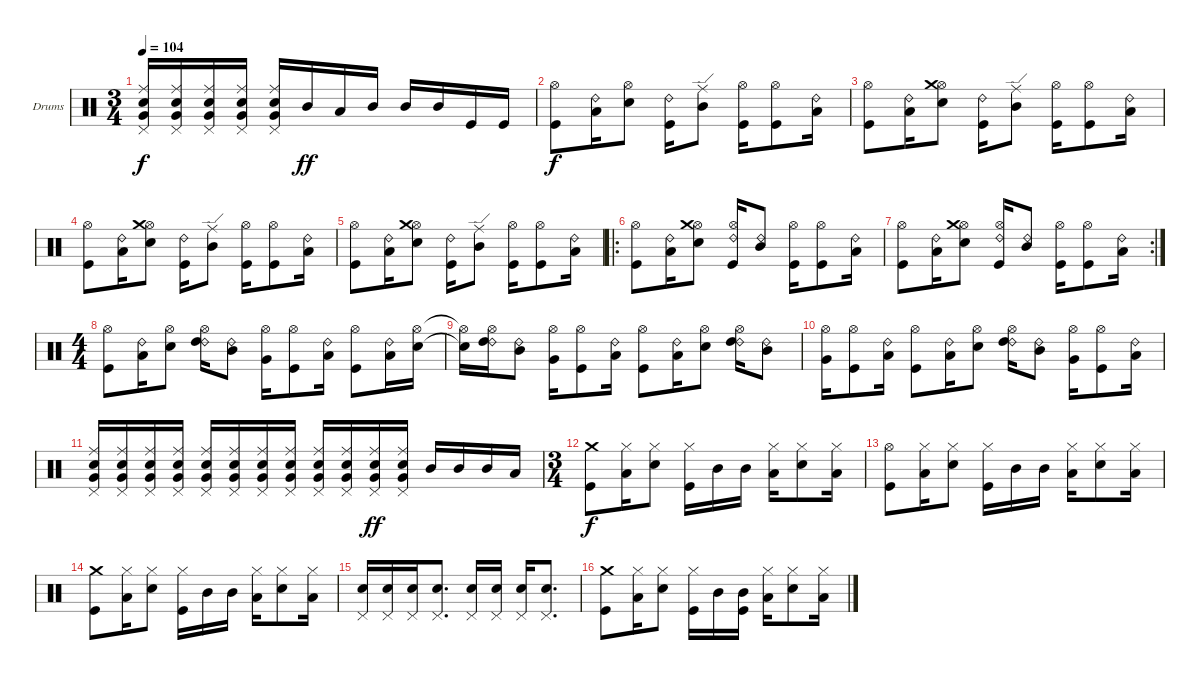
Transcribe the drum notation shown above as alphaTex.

\bracketExtendMode groupsimilarinstruments
\firstSystemTrackNameOrientation horizontal
\otherSystemsTrackNameOrientation horizontal
\track ("Drumkit" "Drums") {instrument percussion}
\staff {score}
\articulation defaults
\ts (3 4)
\tempo 104
\clef neutral
\ks c
("Pedal Hi-Hat (hit)" "Snare (hit) 2" "Ride (middle)" "Very Low Tom (hit)").16{dy f} ("Pedal Hi-Hat (hit)" "Snare (hit) 2" "Ride (middle)" "Very Low Tom (hit)").16 ("Pedal Hi-Hat (hit)" "Snare (hit) 2" "Ride (middle)" "Very Low Tom (hit)").16 ("Pedal Hi-Hat (hit)" "Snare (hit) 2" "Ride (middle)" "Very Low Tom (hit)").16 ("Pedal Hi-Hat (hit)" "Snare (hit) 2" "Ride (middle)" "Very Low Tom (hit)").16 "Mid Tom (hit)".16{dy ff} "Low Tom (hit)".16 "Mid Tom (hit)".16 "Mid Tom (hit)".16 "Mid Tom (hit)".16 "Kick (hit)".16 "Kick (hit)".16 |
("Kick (hit)" "Hi-Hat (open)").8{dy f} ("Low Tom (hit)" "Ride (bell) 2").16 ("Snare (hit) 2" "Hi-Hat (open)").8 ("Kick (hit)" "Ride (bell) 2").16 ("Mid Tom (hit)" "Ride (edge)").8 ("Kick (hit)" "Hi-Hat (open)").16 ("Kick (hit)" "Hi-Hat (open)").8 ("Low Tom (hit)" "Ride (bell) 2").16 |
("Kick (hit)" "Hi-Hat (open)").8 ("Low Tom (hit)" "Ride (bell) 2").16 ("Snare (hit) 2" "Hi-Hat (open)" "Crash medium (hit)").8 ("Kick (hit)" "Ride (bell) 2").16 ("Mid Tom (hit)" "Ride (edge)").8 ("Kick (hit)" "Hi-Hat (open)").16 ("Kick (hit)" "Hi-Hat (open)").8 ("Low Tom (hit)" "Ride (bell) 2").16 |
("Kick (hit)" "Hi-Hat (open)").8 ("Low Tom (hit)" "Ride (bell) 2").16 ("Snare (hit) 2" "Hi-Hat (open)" "Crash medium (hit)").8 ("Kick (hit)" "Ride (bell) 2").16 ("Mid Tom (hit)" "Ride (edge)").8 ("Kick (hit)" "Hi-Hat (open)").16 ("Kick (hit)" "Hi-Hat (open)").8 ("Low Tom (hit)" "Ride (bell) 2").16 |
("Kick (hit)" "Hi-Hat (open)").8 ("Low Tom (hit)" "Ride (bell) 2").16 ("Snare (hit) 2" "Hi-Hat (open)" "Crash medium (hit)").8 ("Kick (hit)" "Ride (bell) 2").16 ("Mid Tom (hit)" "Ride (edge)").8 ("Kick (hit)" "Hi-Hat (open)").16 ("Kick (hit)" "Hi-Hat (open)").8 ("Low Tom (hit)" "Ride (bell) 2").16 |
\ro
("Kick (hit)" "Hi-Hat (open)").8 ("Low Tom (hit)" "Ride (bell) 2").16 ("Snare (hit) 2" "Hi-Hat (open)" "Crash medium (hit)").8 ("Hi-Hat (open)" "Kick (hit)" "Ride (bell) 2").16 ("Mid Tom (hit)" "Ride (bell) 2").8 ("Kick (hit)" "Hi-Hat (open)").16 ("Kick (hit)" "Hi-Hat (open)").8 ("Low Tom (hit)" "Ride (bell) 2").16 |
\rc 2
("Kick (hit)" "Hi-Hat (open)").8 ("Low Tom (hit)" "Ride (bell) 2").16 ("Snare (hit) 2" "Hi-Hat (open)" "Crash medium (hit)").8 ("Hi-Hat (open)" "Kick (hit)" "Ride (bell) 2").16 ("Mid Tom (hit)" "Ride (bell) 2").8 ("Kick (hit)" "Hi-Hat (open)").16 ("Kick (hit)" "Hi-Hat (open)").8 ("Low Tom (hit)" "Ride (bell) 2").16 |
\ts (4 4)
("Kick (hit)" "Hi-Hat (open)").8 ("Low Tom (hit)" "Ride (bell) 2").16 ("Snare (hit) 2" "Hi-Hat (open)").8 ("Hi-Hat (open)" "Ride (bell) 2" "High Tom (hit)").16 ("Mid Tom (hit)" "Ride (bell) 2").8 ("Hi-Hat (open)" "Very Low Tom (hit)").16 ("Kick (hit)" "Hi-Hat (open)").8 ("Low Tom (hit)" "Ride (bell) 2").16 ("Kick (hit)" "Hi-Hat (open)").8 ("Low Tom (hit)" "Ride (bell) 2").16 ("Snare (hit) 2" "Hi-Hat (open)").16 |
("Snare (hit) 2"{t} "Hi-Hat (open)"{t}).16 ("Hi-Hat (open)" "Ride (bell) 2" "High Tom (hit)").16 ("Mid Tom (hit)" "Ride (bell) 2").8 ("Hi-Hat (open)" "Very Low Tom (hit)").16 ("Kick (hit)" "Hi-Hat (open)").8 ("Low Tom (hit)" "Ride (bell) 2").16 ("Kick (hit)" "Hi-Hat (open)").8 ("Low Tom (hit)" "Ride (bell) 2").16 ("Snare (hit) 2" "Hi-Hat (open)").8 ("Hi-Hat (open)" "Ride (bell) 2" "High Tom (hit)").16 ("Mid Tom (hit)" "Ride (bell) 2").8 |
("Hi-Hat (open)" "Very Low Tom (hit)").16 ("Kick (hit)" "Hi-Hat (open)").8 ("Low Tom (hit)" "Ride (bell) 2").16 ("Kick (hit)" "Hi-Hat (open)").8 ("Low Tom (hit)" "Ride (bell) 2").16 ("Snare (hit) 2" "Hi-Hat (open)").8 ("Hi-Hat (open)" "Ride (bell) 2" "High Tom (hit)").16 ("Mid Tom (hit)" "Ride (bell) 2").8 ("Hi-Hat (open)" "Very Low Tom (hit)").16 ("Kick (hit)" "Hi-Hat (open)").8 ("Low Tom (hit)" "Ride (bell) 2").16 |
("Pedal Hi-Hat (hit)" "Snare (hit) 2" "Ride (middle)" "Very Low Tom (hit)").16 ("Pedal Hi-Hat (hit)" "Snare (hit) 2" "Ride (middle)" "Very Low Tom (hit)").16 ("Pedal Hi-Hat (hit)" "Snare (hit) 2" "Ride (middle)" "Very Low Tom (hit)").16 ("Pedal Hi-Hat (hit)" "Snare (hit) 2" "Ride (middle)" "Very Low Tom (hit)").16 ("Pedal Hi-Hat (hit)" "Snare (hit) 2" "Ride (middle)" "Very Low Tom (hit)").16 ("Pedal Hi-Hat (hit)" "Snare (hit) 2" "Ride (middle)" "Very Low Tom (hit)").16 ("Pedal Hi-Hat (hit)" "Snare (hit) 2" "Ride (middle)" "Very Low Tom (hit)").16 ("Pedal Hi-Hat (hit)" "Snare (hit) 2" "Ride (middle)" "Very Low Tom (hit)").16 ("Pedal Hi-Hat (hit)" "Snare (hit) 2" "Ride (middle)" "Very Low Tom (hit)").16 ("Pedal Hi-Hat (hit)" "Snare (hit) 2" "Ride (middle)" "Very Low Tom (hit)").16 ("Pedal Hi-Hat (hit)" "Snare (hit) 2" "Ride (middle)" "Very Low Tom (hit)").16{dy ff} ("Pedal Hi-Hat (hit)" "Snare (hit) 2" "Ride (middle)" "Very Low Tom (hit)").16 "Mid Tom (hit)".16 "Mid Tom (hit)".16 "Mid Tom (hit)".16 "Low Tom (hit)".16 |
\ts (3 4)
("Kick (hit)" "Crash medium (hit)").8{dy f} ("Hi-Hat (closed)" "Low Tom (hit)").16 ("Snare (hit) 2" "Hi-Hat (closed)").8 ("Hi-Hat (closed)" "Kick (hit)").16 "Mid Tom (hit)".16 "Mid Tom (hit)".16 ("Hi-Hat (closed)" "Low Tom (hit)").16 ("Snare (hit) 2" "Hi-Hat (closed)").8 ("Hi-Hat (closed)" "Low Tom (hit)").16 |
("Kick (hit)" "Hi-Hat (open)").8 ("Hi-Hat (closed)" "Low Tom (hit)").16 ("Snare (hit) 2" "Hi-Hat (closed)").8 ("Hi-Hat (closed)" "Kick (hit)").16 "Mid Tom (hit)".16 "Mid Tom (hit)".16 ("Hi-Hat (closed)" "Low Tom (hit)").16 ("Snare (hit) 2" "Hi-Hat (closed)").8 ("Hi-Hat (closed)" "Low Tom (hit)").16 |
("Kick (hit)" "Crash medium (hit)").8 ("Hi-Hat (closed)" "Low Tom (hit)").16 ("Snare (hit) 2" "Hi-Hat (closed)").8 ("Hi-Hat (closed)" "Kick (hit)").16 "Mid Tom (hit)".16 "Mid Tom (hit)".16 ("Hi-Hat (closed)" "Low Tom (hit)").16 ("Snare (hit) 2" "Hi-Hat (closed)").8 ("Hi-Hat (closed)" "Low Tom (hit)").16 |
("Pedal Hi-Hat (hit)" "Snare (hit) 2").16 ("Pedal Hi-Hat (hit)" "Snare (hit) 2").16 ("Pedal Hi-Hat (hit)" "Snare (hit) 2").16 ("Pedal Hi-Hat (hit)" "Snare (hit) 2").8{d} ("Pedal Hi-Hat (hit)" "Snare (hit) 2").16 ("Pedal Hi-Hat (hit)" "Snare (hit) 2").16 ("Pedal Hi-Hat (hit)" "Snare (hit) 2").16 ("Pedal Hi-Hat (hit)" "Snare (hit) 2").8{d} |
("Kick (hit)" "Crash medium (hit)").8 ("Hi-Hat (closed)" "Low Tom (hit)").16 ("Snare (hit) 2" "Hi-Hat (closed)").8 ("Hi-Hat (closed)" "Kick (hit)").16 "Mid Tom (hit)".16 ("Mid Tom (hit)" "Kick (hit)").16 ("Hi-Hat (closed)" "Low Tom (hit)").16 ("Snare (hit) 2" "Hi-Hat (closed)").8 ("Hi-Hat (closed)" "Low Tom (hit)").16
